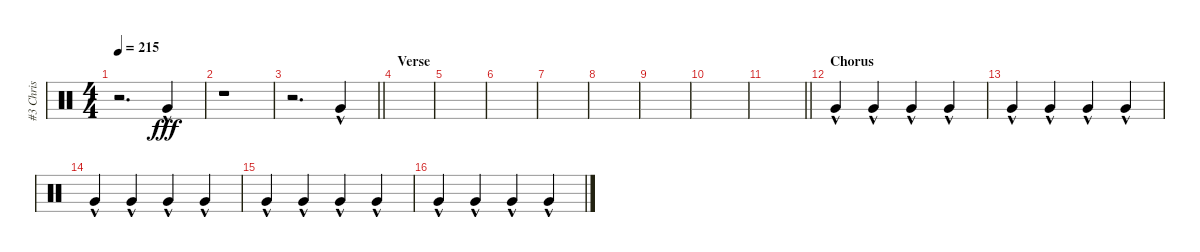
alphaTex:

\track ("#3 Chris" "#3 Chris") {instrument percussion}
\staff {score}
\articulation defaults
\ts (4 4)
\tempo 215
\clef neutral
\ks c
r.2{d dy fff} "Very Low Tom (hit)"{hac}.4 |
r.1 |
\barLineRight lightlight
r.2{d} "Very Low Tom (hit)"{hac}.4 |
\section ("" "Verse")
|
|
|
|
|
|
|
\barLineRight lightlight
|
\section ("" "Chorus")
"Very Low Tom (hit)"{hac}.4 "Very Low Tom (hit)"{hac}.4 "Very Low Tom (hit)"{hac}.4 "Very Low Tom (hit)"{hac}.4 |
"Very Low Tom (hit)"{hac}.4 "Very Low Tom (hit)"{hac}.4 "Very Low Tom (hit)"{hac}.4 "Very Low Tom (hit)"{hac}.4 |
"Very Low Tom (hit)"{hac}.4 "Very Low Tom (hit)"{hac}.4 "Very Low Tom (hit)"{hac}.4 "Very Low Tom (hit)"{hac}.4 |
"Very Low Tom (hit)"{hac}.4 "Very Low Tom (hit)"{hac}.4 "Very Low Tom (hit)"{hac}.4 "Very Low Tom (hit)"{hac}.4 |
"Very Low Tom (hit)"{hac}.4 "Very Low Tom (hit)"{hac}.4 "Very Low Tom (hit)"{hac}.4 "Very Low Tom (hit)"{hac}.4
